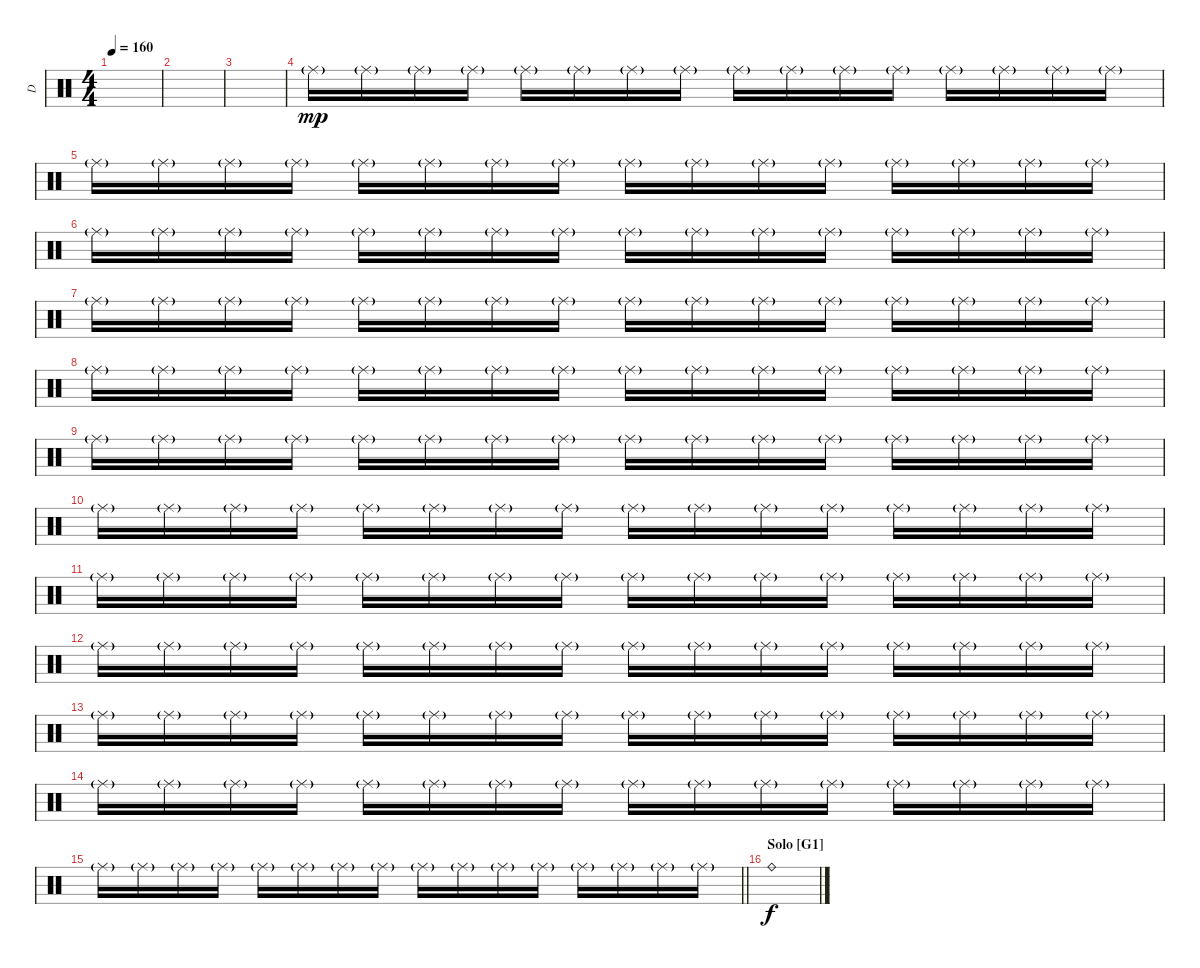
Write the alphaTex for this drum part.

\track ("D" "D") {instrument percussion}
\staff {score}
\articulation defaults
\ts (4 4)
\tempo 160
\clef neutral
\ks c
|
|
|
"Ride (middle)"{g}.16{dy mp volume 0} "Ride (middle)"{g}.16 "Ride (middle)"{g}.16 "Ride (middle)"{g}.16 "Ride (middle)"{g}.16 "Ride (middle)"{g}.16 "Ride (middle)"{g}.16 "Ride (middle)"{g}.16 "Ride (middle)"{g}.16 "Ride (middle)"{g}.16 "Ride (middle)"{g}.16 "Ride (middle)"{g}.16 "Ride (middle)"{g}.16 "Ride (middle)"{g}.16 "Ride (middle)"{g}.16 "Ride (middle)"{g}.16 |
"Ride (middle)"{g}.16 "Ride (middle)"{g}.16 "Ride (middle)"{g}.16 "Ride (middle)"{g}.16 "Ride (middle)"{g}.16 "Ride (middle)"{g}.16 "Ride (middle)"{g}.16 "Ride (middle)"{g}.16 "Ride (middle)"{g}.16 "Ride (middle)"{g}.16 "Ride (middle)"{g}.16 "Ride (middle)"{g}.16 "Ride (middle)"{g}.16 "Ride (middle)"{g}.16 "Ride (middle)"{g}.16 "Ride (middle)"{g}.16 |
"Ride (middle)"{g}.16 "Ride (middle)"{g}.16 "Ride (middle)"{g}.16 "Ride (middle)"{g}.16 "Ride (middle)"{g}.16 "Ride (middle)"{g}.16 "Ride (middle)"{g}.16 "Ride (middle)"{g}.16 "Ride (middle)"{g}.16 "Ride (middle)"{g}.16 "Ride (middle)"{g}.16 "Ride (middle)"{g}.16 "Ride (middle)"{g}.16 "Ride (middle)"{g}.16 "Ride (middle)"{g}.16 "Ride (middle)"{g}.16 |
"Ride (middle)"{g}.16 "Ride (middle)"{g}.16 "Ride (middle)"{g}.16 "Ride (middle)"{g}.16 "Ride (middle)"{g}.16 "Ride (middle)"{g}.16 "Ride (middle)"{g}.16 "Ride (middle)"{g}.16 "Ride (middle)"{g}.16 "Ride (middle)"{g}.16 "Ride (middle)"{g}.16 "Ride (middle)"{g}.16 "Ride (middle)"{g}.16 "Ride (middle)"{g}.16 "Ride (middle)"{g}.16 "Ride (middle)"{g}.16 |
"Ride (middle)"{g}.16{volume 12} "Ride (middle)"{g}.16 "Ride (middle)"{g}.16 "Ride (middle)"{g}.16 "Ride (middle)"{g}.16 "Ride (middle)"{g}.16 "Ride (middle)"{g}.16 "Ride (middle)"{g}.16 "Ride (middle)"{g}.16 "Ride (middle)"{g}.16 "Ride (middle)"{g}.16 "Ride (middle)"{g}.16 "Ride (middle)"{g}.16 "Ride (middle)"{g}.16 "Ride (middle)"{g}.16 "Ride (middle)"{g}.16 |
"Ride (middle)"{g}.16 "Ride (middle)"{g}.16 "Ride (middle)"{g}.16 "Ride (middle)"{g}.16 "Ride (middle)"{g}.16 "Ride (middle)"{g}.16 "Ride (middle)"{g}.16 "Ride (middle)"{g}.16 "Ride (middle)"{g}.16 "Ride (middle)"{g}.16 "Ride (middle)"{g}.16 "Ride (middle)"{g}.16 "Ride (middle)"{g}.16 "Ride (middle)"{g}.16 "Ride (middle)"{g}.16 "Ride (middle)"{g}.16 |
"Ride (middle)"{g}.16 "Ride (middle)"{g}.16 "Ride (middle)"{g}.16 "Ride (middle)"{g}.16 "Ride (middle)"{g}.16 "Ride (middle)"{g}.16 "Ride (middle)"{g}.16 "Ride (middle)"{g}.16 "Ride (middle)"{g}.16 "Ride (middle)"{g}.16 "Ride (middle)"{g}.16 "Ride (middle)"{g}.16 "Ride (middle)"{g}.16 "Ride (middle)"{g}.16 "Ride (middle)"{g}.16 "Ride (middle)"{g}.16 |
"Ride (middle)"{g}.16 "Ride (middle)"{g}.16 "Ride (middle)"{g}.16 "Ride (middle)"{g}.16 "Ride (middle)"{g}.16 "Ride (middle)"{g}.16 "Ride (middle)"{g}.16 "Ride (middle)"{g}.16 "Ride (middle)"{g}.16 "Ride (middle)"{g}.16 "Ride (middle)"{g}.16 "Ride (middle)"{g}.16 "Ride (middle)"{g}.16 "Ride (middle)"{g}.16 "Ride (middle)"{g}.16 "Ride (middle)"{g}.16 |
"Ride (middle)"{g}.16{volume 12} "Ride (middle)"{g}.16 "Ride (middle)"{g}.16 "Ride (middle)"{g}.16 "Ride (middle)"{g}.16 "Ride (middle)"{g}.16 "Ride (middle)"{g}.16 "Ride (middle)"{g}.16 "Ride (middle)"{g}.16 "Ride (middle)"{g}.16 "Ride (middle)"{g}.16 "Ride (middle)"{g}.16 "Ride (middle)"{g}.16 "Ride (middle)"{g}.16 "Ride (middle)"{g}.16 "Ride (middle)"{g}.16 |
"Ride (middle)"{g}.16 "Ride (middle)"{g}.16 "Ride (middle)"{g}.16 "Ride (middle)"{g}.16 "Ride (middle)"{g}.16 "Ride (middle)"{g}.16 "Ride (middle)"{g}.16 "Ride (middle)"{g}.16 "Ride (middle)"{g}.16 "Ride (middle)"{g}.16 "Ride (middle)"{g}.16 "Ride (middle)"{g}.16 "Ride (middle)"{g}.16 "Ride (middle)"{g}.16 "Ride (middle)"{g}.16 "Ride (middle)"{g}.16 |
"Ride (middle)"{g}.16 "Ride (middle)"{g}.16 "Ride (middle)"{g}.16 "Ride (middle)"{g}.16 "Ride (middle)"{g}.16 "Ride (middle)"{g}.16 "Ride (middle)"{g}.16 "Ride (middle)"{g}.16 "Ride (middle)"{g}.16 "Ride (middle)"{g}.16 "Ride (middle)"{g}.16 "Ride (middle)"{g}.16 "Ride (middle)"{g}.16 "Ride (middle)"{g}.16 "Ride (middle)"{g}.16 "Ride (middle)"{g}.16 |
\barLineRight lightlight "Ride (middle)"{g}.16 "Ride (middle)"{g}.16 "Ride (middle)"{g}.16 "Ride (middle)"{g}.16 "Ride (middle)"{g}.16 "Ride (middle)"{g}.16 "Ride (middle)"{g}.16 "Ride (middle)"{g}.16 "Ride (middle)"{g}.16 "Ride (middle)"{g}.16 "Ride (middle)"{g}.16 "Ride (middle)"{g}.16 "Ride (middle)"{g}.16 "Ride (middle)"{g}.16 "Ride (middle)"{g}.16 "Ride (middle)"{g}.16
|
\section ("" "Solo [G1]")
"Ride (bell)".1{dy f}
